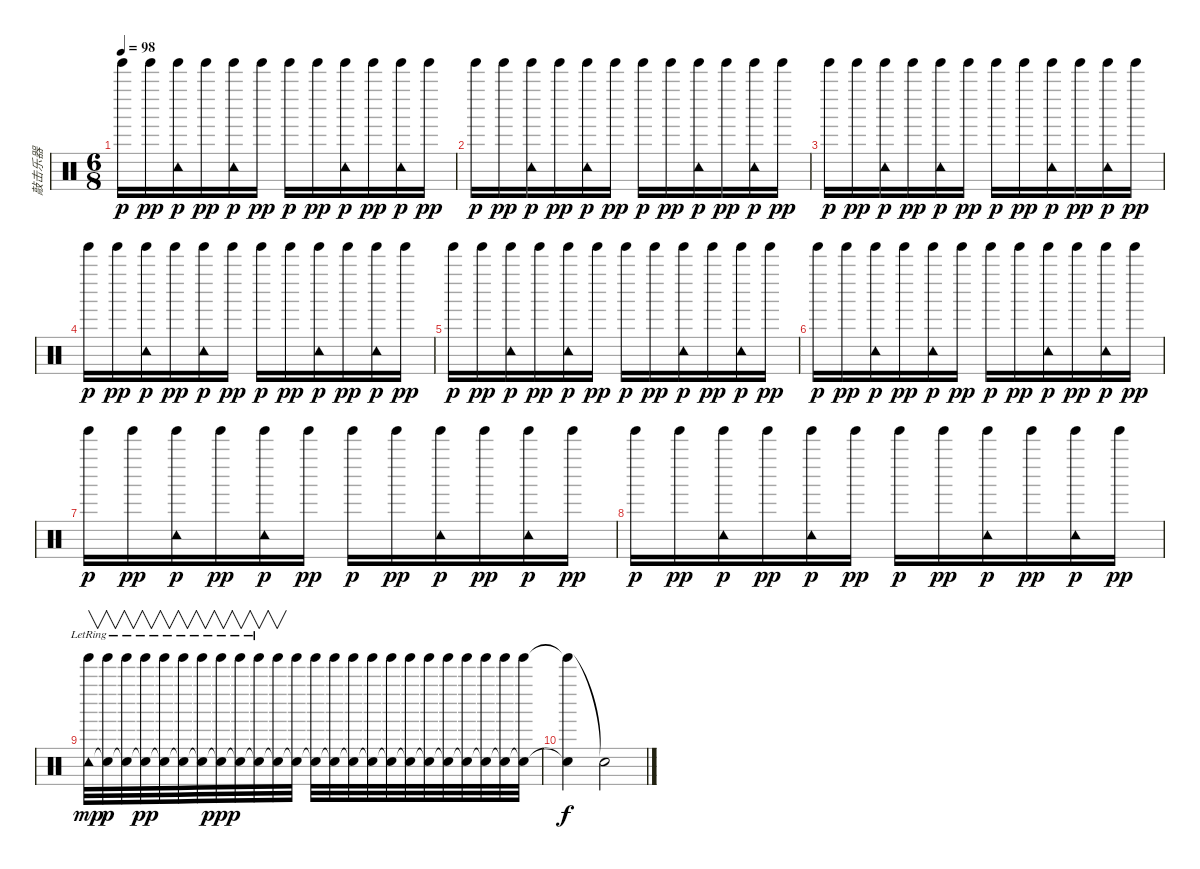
\track ("敲击乐器" "敲击乐器") {instrument percussion}
\staff {score}
\articulation defaults
\ts (6 8)
\tempo 98
\clef neutral
\ks c "Tinkle Bell (hit)".16{dy p} "Tinkle Bell (hit)".16{dy pp}
("Tinkle Bell (hit)" "Tambourine (hit)").16{dy p} "Tinkle Bell (hit)".16{dy pp} ("Tinkle Bell (hit)" "Tambourine (hit)").16{dy p} "Tinkle Bell (hit)".16{dy pp} "Tinkle Bell (hit)".16{dy p} "Tinkle Bell (hit)".16{dy pp} ("Tinkle Bell (hit)" "Tambourine (hit)").16{dy p} "Tinkle Bell (hit)".16{dy pp} ("Tinkle Bell (hit)" "Tambourine (hit)").16{dy p} "Tinkle Bell (hit)".16{dy pp} |
"Tinkle Bell (hit)".16{dy p} "Tinkle Bell (hit)".16{dy pp} ("Tinkle Bell (hit)" "Tambourine (hit)").16{dy p} "Tinkle Bell (hit)".16{dy pp} ("Tinkle Bell (hit)" "Tambourine (hit)").16{dy p} "Tinkle Bell (hit)".16{dy pp} "Tinkle Bell (hit)".16{dy p} "Tinkle Bell (hit)".16{dy pp} ("Tinkle Bell (hit)" "Tambourine (hit)").16{dy p} "Tinkle Bell (hit)".16{dy pp} ("Tinkle Bell (hit)" "Tambourine (hit)").16{dy p} "Tinkle Bell (hit)".16{dy pp} |
"Tinkle Bell (hit)".16{dy p} "Tinkle Bell (hit)".16{dy pp} ("Tinkle Bell (hit)" "Tambourine (hit)").16{dy p} "Tinkle Bell (hit)".16{dy pp} ("Tinkle Bell (hit)" "Tambourine (hit)").16{dy p} "Tinkle Bell (hit)".16{dy pp} "Tinkle Bell (hit)".16{dy p} "Tinkle Bell (hit)".16{dy pp} ("Tinkle Bell (hit)" "Tambourine (hit)").16{dy p} "Tinkle Bell (hit)".16{dy pp} ("Tinkle Bell (hit)" "Tambourine (hit)").16{dy p} "Tinkle Bell (hit)".16{dy pp} |
"Tinkle Bell (hit)".16{dy p} "Tinkle Bell (hit)".16{dy pp} ("Tinkle Bell (hit)" "Tambourine (hit)").16{dy p} "Tinkle Bell (hit)".16{dy pp} ("Tinkle Bell (hit)" "Tambourine (hit)").16{dy p} "Tinkle Bell (hit)".16{dy pp} "Tinkle Bell (hit)".16{dy p} "Tinkle Bell (hit)".16{dy pp} ("Tinkle Bell (hit)" "Tambourine (hit)").16{dy p} "Tinkle Bell (hit)".16{dy pp} ("Tinkle Bell (hit)" "Tambourine (hit)").16{dy p} "Tinkle Bell (hit)".16{dy pp} |
"Tinkle Bell (hit)".16{dy p} "Tinkle Bell (hit)".16{dy pp} ("Tinkle Bell (hit)" "Tambourine (hit)").16{dy p} "Tinkle Bell (hit)".16{dy pp} ("Tinkle Bell (hit)" "Tambourine (hit)").16{dy p} "Tinkle Bell (hit)".16{dy pp} "Tinkle Bell (hit)".16{dy p} "Tinkle Bell (hit)".16{dy pp} ("Tinkle Bell (hit)" "Tambourine (hit)").16{dy p} "Tinkle Bell (hit)".16{dy pp} ("Tinkle Bell (hit)" "Tambourine (hit)").16{dy p} "Tinkle Bell (hit)".16{dy pp} |
"Tinkle Bell (hit)".16{dy p} "Tinkle Bell (hit)".16{dy pp} ("Tinkle Bell (hit)" "Tambourine (hit)").16{dy p} "Tinkle Bell (hit)".16{dy pp} ("Tinkle Bell (hit)" "Tambourine (hit)").16{dy p} "Tinkle Bell (hit)".16{dy pp} "Tinkle Bell (hit)".16{dy p} "Tinkle Bell (hit)".16{dy pp} ("Tinkle Bell (hit)" "Tambourine (hit)").16{dy p} "Tinkle Bell (hit)".16{dy pp} ("Tinkle Bell (hit)" "Tambourine (hit)").16{dy p} "Tinkle Bell (hit)".16{dy pp} |
"Tinkle Bell (hit)".16{dy p} "Tinkle Bell (hit)".16{dy pp} ("Tinkle Bell (hit)" "Tambourine (hit)").16{dy p} "Tinkle Bell (hit)".16{dy pp} ("Tinkle Bell (hit)" "Tambourine (hit)").16{dy p} "Tinkle Bell (hit)".16{dy pp} "Tinkle Bell (hit)".16{dy p} "Tinkle Bell (hit)".16{dy pp} ("Tinkle Bell (hit)" "Tambourine (hit)").16{dy p} "Tinkle Bell (hit)".16{dy pp} ("Tinkle Bell (hit)" "Tambourine (hit)").16{dy p} "Tinkle Bell (hit)".16{dy pp} |
"Tinkle Bell (hit)".16{dy p} "Tinkle Bell (hit)".16{dy pp} ("Tinkle Bell (hit)" "Tambourine (hit)").16{dy p} "Tinkle Bell (hit)".16{dy pp} ("Tinkle Bell (hit)" "Tambourine (hit)").16{dy p} "Tinkle Bell (hit)".16{dy pp} "Tinkle Bell (hit)".16{dy p} "Tinkle Bell (hit)".16{dy pp} ("Tinkle Bell (hit)" "Tambourine (hit)").16{dy p} "Tinkle Bell (hit)".16{dy pp} ("Tinkle Bell (hit)" "Tambourine (hit)").16{dy p} "Tinkle Bell (hit)".16{dy pp} |
("Tinkle Bell (hit)"{lr} "Tambourine (hit)").32{v dy mp} ("Tinkle Bell (hit)"{lr} "Snare (hit)"{t}).32{v dy p} ("Tinkle Bell (hit)"{lr} "Snare (hit)"{t}).32{v} ("Tinkle Bell (hit)"{lr} "Snare (hit)"{t}).32{v dy pp} ("Tinkle Bell (hit)"{lr} "Snare (hit)"{t}).32{v} ("Tinkle Bell (hit)"{lr} "Snare (hit)"{t}).32{v} ("Tinkle Bell (hit)"{lr} "Snare (hit)"{t}).32{v} ("Tinkle Bell (hit)"{lr} "Snare (hit)"{t}).32{v dy ppp} ("Tinkle Bell (hit)"{lr} "Snare (hit)"{t}).32{v} ("Tinkle Bell (hit)"{lr} "Snare (hit)"{t}).32{v} ("Tinkle Bell (hit)" "Snare (hit)"{t}).32{v} ("Tinkle Bell (hit)" "Snare (hit)"{t}).32 ("Tinkle Bell (hit)" "Snare (hit)"{t}).32 ("Tinkle Bell (hit)" "Snare (hit)"{t}).32 ("Tinkle Bell (hit)" "Snare (hit)"{t}).32 ("Tinkle Bell (hit)" "Snare (hit)"{t}).32 ("Tinkle Bell (hit)" "Snare (hit)"{t}).32 ("Tinkle Bell (hit)" "Snare (hit)"{t}).32 ("Tinkle Bell (hit)" "Snare (hit)"{t}).32 ("Tinkle Bell (hit)" "Snare (hit)"{t}).32 ("Tinkle Bell (hit)" "Snare (hit)"{t}).32 ("Tinkle Bell (hit)" "Snare (hit)"{t}).32 ("Tinkle Bell (hit)" "Snare (hit)"{t}).32 ("Tinkle Bell (hit)" "Snare (hit)"{t}).32 |
("Tinkle Bell (hit)"{t} "Snare (hit)"{t}).4{dy f} "Snare (hit)"{t}.2
